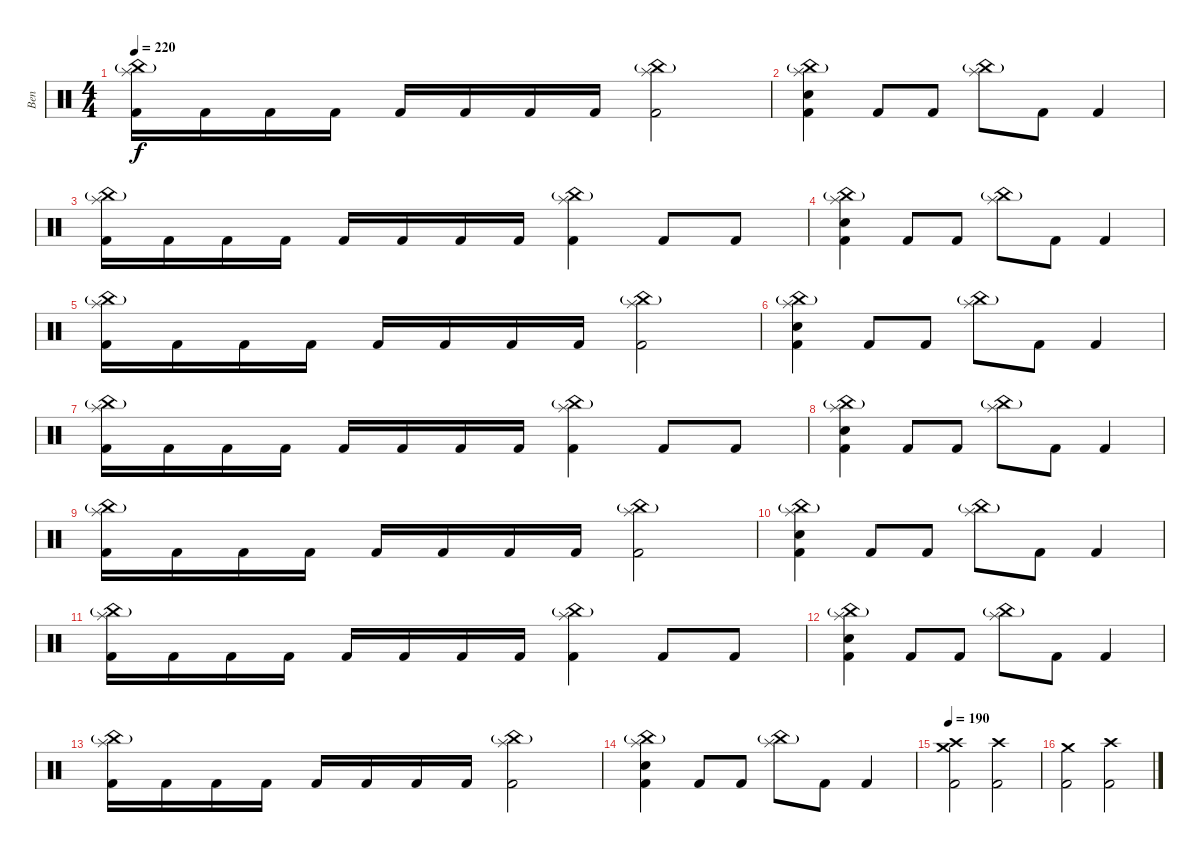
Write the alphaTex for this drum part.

\track ("Ben" "Ben") {instrument percussion}
\staff {score}
\articulation defaults
\ts (4 4)
\tempo 220
\clef neutral
\ks c
("China (hit)"{g} "Splash (hit)" "Kick (hit) 2").16{dy f} "Kick (hit) 2".16 "Kick (hit) 2".16 "Kick (hit) 2".16 "Kick (hit) 2".16 "Kick (hit) 2".16 "Kick (hit) 2".16 "Kick (hit) 2".16 ("China (hit)"{g} "Splash (hit)" "Kick (hit) 2").2 |
("China (hit)"{g} "Splash (hit)" "Snare (hit) 2" "Kick (hit) 2").4 "Kick (hit) 2".8 "Kick (hit) 2".8 ("China (hit)"{g} "Splash (hit)").8 "Kick (hit) 2".8 "Kick (hit) 2".4 |
("China (hit)"{g} "Splash (hit)" "Kick (hit) 2").16 "Kick (hit) 2".16 "Kick (hit) 2".16 "Kick (hit) 2".16 "Kick (hit) 2".16 "Kick (hit) 2".16 "Kick (hit) 2".16 "Kick (hit) 2".16 ("China (hit)"{g} "Splash (hit)" "Kick (hit) 2").4 "Kick (hit) 2".8 "Kick (hit) 2".8 |
("China (hit)"{g} "Splash (hit)" "Snare (hit) 2" "Kick (hit) 2").4 "Kick (hit) 2".8 "Kick (hit) 2".8 ("China (hit)"{g} "Splash (hit)").8 "Kick (hit) 2".8 "Kick (hit) 2".4 |
("China (hit)"{g} "Splash (hit)" "Kick (hit) 2").16 "Kick (hit) 2".16 "Kick (hit) 2".16 "Kick (hit) 2".16 "Kick (hit) 2".16 "Kick (hit) 2".16 "Kick (hit) 2".16 "Kick (hit) 2".16 ("China (hit)"{g} "Splash (hit)" "Kick (hit) 2").2 |
("China (hit)"{g} "Splash (hit)" "Snare (hit) 2" "Kick (hit) 2").4 "Kick (hit) 2".8 "Kick (hit) 2".8 ("China (hit)"{g} "Splash (hit)").8 "Kick (hit) 2".8 "Kick (hit) 2".4 |
("China (hit)"{g} "Splash (hit)" "Kick (hit) 2").16 "Kick (hit) 2".16 "Kick (hit) 2".16 "Kick (hit) 2".16 "Kick (hit) 2".16 "Kick (hit) 2".16 "Kick (hit) 2".16 "Kick (hit) 2".16 ("China (hit)"{g} "Splash (hit)" "Kick (hit) 2").4 "Kick (hit) 2".8 "Kick (hit) 2".8 |
("China (hit)"{g} "Splash (hit)" "Snare (hit) 2" "Kick (hit) 2").4 "Kick (hit) 2".8 "Kick (hit) 2".8 ("China (hit)"{g} "Splash (hit)").8 "Kick (hit) 2".8 "Kick (hit) 2".4 |
("China (hit)"{g} "Splash (hit)" "Kick (hit) 2").16 "Kick (hit) 2".16 "Kick (hit) 2".16 "Kick (hit) 2".16 "Kick (hit) 2".16 "Kick (hit) 2".16 "Kick (hit) 2".16 "Kick (hit) 2".16 ("China (hit)"{g} "Splash (hit)" "Kick (hit) 2").2 |
("China (hit)"{g} "Splash (hit)" "Snare (hit) 2" "Kick (hit) 2").4 "Kick (hit) 2".8 "Kick (hit) 2".8 ("China (hit)"{g} "Splash (hit)").8 "Kick (hit) 2".8 "Kick (hit) 2".4 |
("China (hit)"{g} "Splash (hit)" "Kick (hit) 2").16 "Kick (hit) 2".16 "Kick (hit) 2".16 "Kick (hit) 2".16 "Kick (hit) 2".16 "Kick (hit) 2".16 "Kick (hit) 2".16 "Kick (hit) 2".16 ("China (hit)"{g} "Splash (hit)" "Kick (hit) 2").4 "Kick (hit) 2".8 "Kick (hit) 2".8 |
("China (hit)"{g} "Splash (hit)" "Snare (hit) 2" "Kick (hit) 2").4 "Kick (hit) 2".8 "Kick (hit) 2".8 ("China (hit)"{g} "Splash (hit)").8 "Kick (hit) 2".8 "Kick (hit) 2".4 |
("China (hit)"{g} "Splash (hit)" "Kick (hit) 2").16 "Kick (hit) 2".16 "Kick (hit) 2".16 "Kick (hit) 2".16 "Kick (hit) 2".16 "Kick (hit) 2".16 "Kick (hit) 2".16 "Kick (hit) 2".16 ("China (hit)"{g} "Splash (hit)" "Kick (hit) 2").2 |
("China (hit)"{g} "Splash (hit)" "Snare (hit) 2" "Kick (hit) 2").4 "Kick (hit) 2".8 "Kick (hit) 2".8 ("China (hit)"{g} "Splash (hit)").8 "Kick (hit) 2".8 "Kick (hit) 2".4 |
\tempo 190
("Crash high (hit)" "Crash medium (hit)" "Kick (hit) 2").2 ("Crash high (hit)" "Kick (hit) 2").2 |
("Crash medium (hit)" "Kick (hit) 2").2 ("Crash high (hit)" "Kick (hit) 2").2
